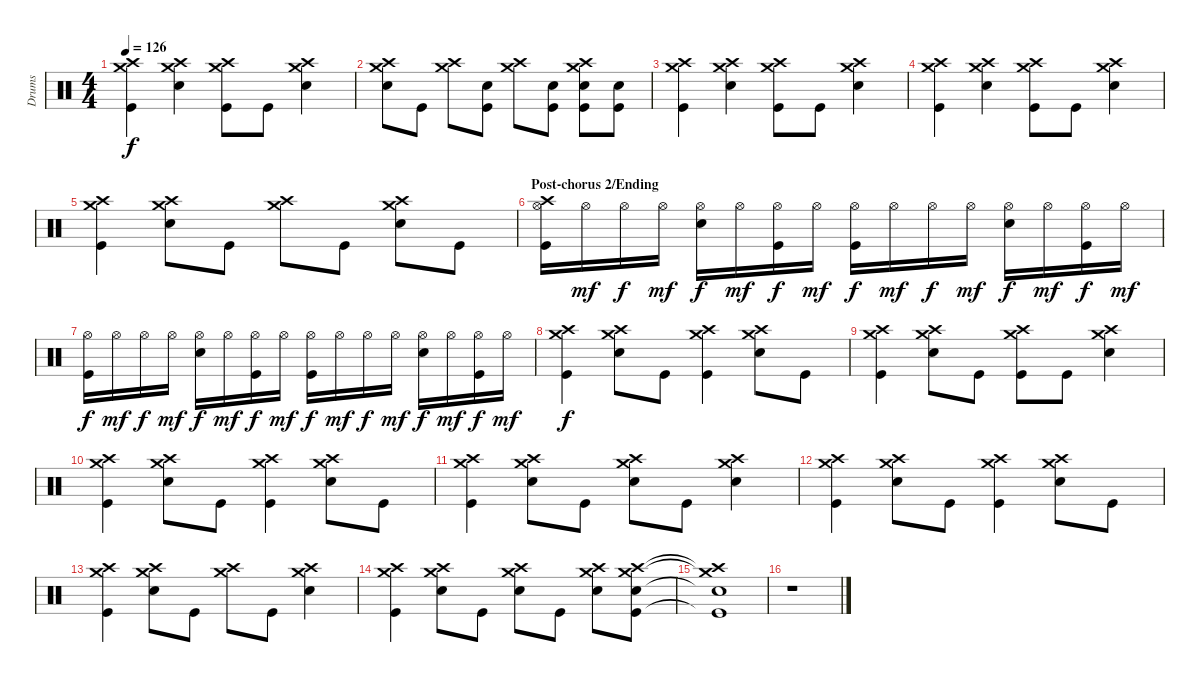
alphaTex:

\track ("Drums" "Drums") {instrument percussion}
\staff {score}
\articulation defaults
\ts (4 4)
\tempo 126
\clef neutral
\ks c
("Crash high (hit)" "Crash medium (hit)" "Kick (hit)").4{dy f} ("Crash high (hit)" "Crash medium (hit)" "Snare (hit) 2").4 ("Crash high (hit)" "Crash medium (hit)" "Kick (hit)").8 "Kick (hit)".8 ("Crash high (hit)" "Crash medium (hit)" "Snare (hit) 2").4 |
("Crash high (hit)" "Crash medium (hit)" "Snare (hit) 2").8 "Kick (hit)".8 ("Crash high (hit)" "Crash medium (hit)").8 ("Snare (hit) 2" "Kick (hit)").8 ("Crash high (hit)" "Crash medium (hit)").8 ("Snare (hit) 2" "Kick (hit)").8 ("Crash high (hit)" "Crash medium (hit)" "Snare (hit) 2" "Kick (hit)").8 ("Snare (hit) 2" "Kick (hit)").8 |
("Crash high (hit)" "Crash medium (hit)" "Kick (hit)").4 ("Crash high (hit)" "Crash medium (hit)" "Snare (hit) 2").4 ("Crash high (hit)" "Crash medium (hit)" "Kick (hit)").8 "Kick (hit)".8 ("Crash high (hit)" "Crash medium (hit)" "Snare (hit) 2").4 |
("Crash high (hit)" "Crash medium (hit)" "Kick (hit)").4 ("Crash high (hit)" "Crash medium (hit)" "Snare (hit) 2").4 ("Crash high (hit)" "Crash medium (hit)" "Kick (hit)").8 "Kick (hit)".8 ("Crash high (hit)" "Crash medium (hit)" "Snare (hit) 2").4 |
("Crash high (hit)" "Crash medium (hit)" "Kick (hit)").4 ("Crash high (hit)" "Crash medium (hit)" "Snare (hit) 2").8 "Kick (hit)".8 ("Crash high (hit)" "Crash medium (hit)").8 "Kick (hit)".8 ("Crash high (hit)" "Crash medium (hit)" "Snare (hit) 2").8 "Kick (hit)".8 |
\section ("" "Post-chorus 2/Ending")
("Hi-Hat (open)" "Crash high (hit)" "Kick (hit)").16 "Hi-Hat (open)".16{dy mf} "Hi-Hat (open)".16{dy f} "Hi-Hat (open)".16{dy mf} ("Hi-Hat (open)" "Snare (hit) 2").16{dy f} "Hi-Hat (open)".16{dy mf} ("Hi-Hat (open)" "Kick (hit)").16{dy f} "Hi-Hat (open)".16{dy mf} ("Hi-Hat (open)" "Kick (hit)").16{dy f} "Hi-Hat (open)".16{dy mf} "Hi-Hat (open)".16{dy f} "Hi-Hat (open)".16{dy mf} ("Hi-Hat (open)" "Snare (hit) 2").16{dy f} "Hi-Hat (open)".16{dy mf} ("Hi-Hat (open)" "Kick (hit)").16{dy f} "Hi-Hat (open)".16{dy mf} |
("Hi-Hat (open)" "Kick (hit)").16{dy f} "Hi-Hat (open)".16{dy mf} "Hi-Hat (open)".16{dy f} "Hi-Hat (open)".16{dy mf} ("Hi-Hat (open)" "Snare (hit) 2").16{dy f} "Hi-Hat (open)".16{dy mf} ("Hi-Hat (open)" "Kick (hit)").16{dy f} "Hi-Hat (open)".16{dy mf} ("Hi-Hat (open)" "Kick (hit)").16{dy f} "Hi-Hat (open)".16{dy mf} "Hi-Hat (open)".16{dy f} "Hi-Hat (open)".16{dy mf} ("Hi-Hat (open)" "Snare (hit) 2").16{dy f} "Hi-Hat (open)".16{dy mf} ("Hi-Hat (open)" "Kick (hit)").16{dy f} "Hi-Hat (open)".16{dy mf} |
("Crash high (hit)" "Crash medium (hit)" "Kick (hit)").4{dy f} ("Crash high (hit)" "Crash medium (hit)" "Snare (hit) 2").8 "Kick (hit)".8 ("Crash high (hit)" "Crash medium (hit)" "Kick (hit)").4 ("Crash high (hit)" "Crash medium (hit)" "Snare (hit) 2").8 "Kick (hit)".8 |
("Crash high (hit)" "Crash medium (hit)" "Kick (hit)").4 ("Crash high (hit)" "Crash medium (hit)" "Snare (hit) 2").8 "Kick (hit)".8 ("Crash high (hit)" "Crash medium (hit)" "Kick (hit)").8 "Kick (hit)".8 ("Crash high (hit)" "Crash medium (hit)" "Snare (hit) 2").4 |
("Crash high (hit)" "Crash medium (hit)" "Kick (hit)").4 ("Crash high (hit)" "Crash medium (hit)" "Snare (hit) 2").8 "Kick (hit)".8 ("Crash high (hit)" "Crash medium (hit)" "Kick (hit)").4 ("Crash high (hit)" "Crash medium (hit)" "Snare (hit) 2").8 "Kick (hit)".8 |
("Crash high (hit)" "Crash medium (hit)" "Kick (hit)").4 ("Crash high (hit)" "Crash medium (hit)" "Snare (hit) 2").8 "Kick (hit)".8 ("Crash high (hit)" "Crash medium (hit)" "Snare (hit) 2").8 "Kick (hit)".8 ("Crash high (hit)" "Crash medium (hit)" "Snare (hit) 2").4 |
("Crash high (hit)" "Crash medium (hit)" "Kick (hit)").4 ("Crash high (hit)" "Crash medium (hit)" "Snare (hit) 2").8 "Kick (hit)".8 ("Crash high (hit)" "Crash medium (hit)" "Kick (hit)").4 ("Crash high (hit)" "Crash medium (hit)" "Snare (hit) 2").8 "Kick (hit)".8 |
("Crash high (hit)" "Crash medium (hit)" "Kick (hit)").4 ("Crash high (hit)" "Crash medium (hit)" "Snare (hit) 2").8 "Kick (hit)".8 ("Crash high (hit)" "Crash medium (hit)").8 "Kick (hit)".8 ("Crash high (hit)" "Crash medium (hit)" "Snare (hit) 2").4 |
("Crash high (hit)" "Crash medium (hit)" "Kick (hit)").4 ("Crash high (hit)" "Crash medium (hit)" "Snare (hit) 2").8 "Kick (hit)".8 ("Crash high (hit)" "Crash medium (hit)" "Snare (hit) 2").8 "Kick (hit)".8 ("Crash high (hit)" "Crash medium (hit)" "Snare (hit) 2").8 ("Crash high (hit)" "Crash medium (hit)" "Snare (hit) 2" "Kick (hit)").8 |
("Crash high (hit)"{t} "Crash medium (hit)"{t} "Snare (hit) 2"{t} "Kick (hit)"{t}).1 |
r.1
